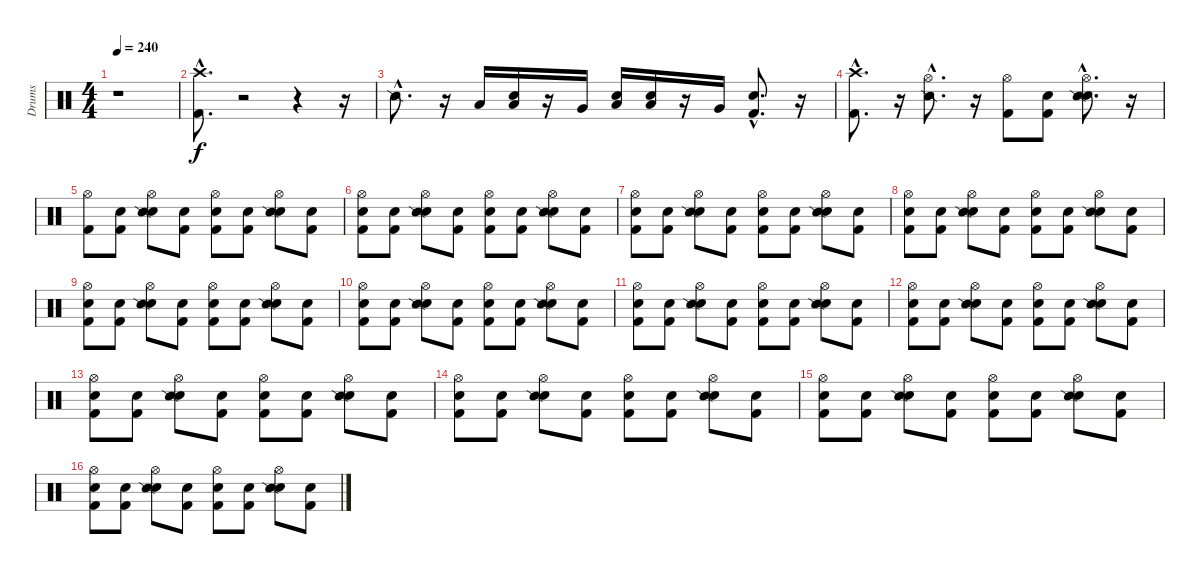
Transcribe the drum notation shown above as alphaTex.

\track ("Drums" "Drums") {instrument percussion}
\staff {score}
\articulation defaults
\ts (4 4)
\tempo 240
\clef neutral
\ks c
r.1{dy f} |
("Kick (hit) 2"{hac} "Crash high (hit)"{hac}).8{d} r.2 r.4 r.16 |
"Snare (side stick) 2"{hac}.8{d} r.16 "Low Tom (hit)".16 ("Snare (hit)" "Low Tom (hit)").16 r.16 "Very Low Tom (hit)".16 ("Snare (hit)" "Low Tom (hit)").16 ("Snare (hit)" "Low Tom (hit)").16 r.16 "Very Low Tom (hit)".16 ("Snare (hit)"{hac} "Kick (hit) 2"{hac}).8{d} r.16 |
("Kick (hit) 2"{hac} "Crash high (hit)"{hac}).8{d} r.16 ("Hi-Hat (open)"{hac} "Snare (side stick) 2"{hac}).8{d} r.16 ("Kick (hit) 2" "Hi-Hat (open)").8 ("Snare (hit)" "Kick (hit) 2").8 ("Snare (hit)"{hac} "Hi-Hat (open)"{hac} "Snare (side stick) 2"{hac}).8{d} r.16 |
("Kick (hit) 2" "Hi-Hat (open)").8 ("Snare (hit)" "Kick (hit) 2").8 ("Snare (hit)" "Hi-Hat (open)" "Snare (side stick) 2").8 ("Snare (hit)" "Kick (hit) 2").8 ("Snare (hit)" "Kick (hit) 2" "Hi-Hat (open)").8 ("Snare (hit)" "Kick (hit) 2").8 ("Snare (hit)" "Hi-Hat (open)" "Snare (side stick) 2").8 ("Snare (hit)" "Kick (hit) 2").8 |
("Snare (hit)" "Kick (hit) 2" "Hi-Hat (open)").8 ("Snare (hit)" "Kick (hit) 2").8 ("Snare (hit)" "Hi-Hat (open)" "Snare (side stick) 2").8 ("Snare (hit)" "Kick (hit) 2").8 ("Snare (hit)" "Kick (hit) 2" "Hi-Hat (open)").8 ("Snare (hit)" "Kick (hit) 2").8 ("Snare (hit)" "Hi-Hat (open)" "Snare (side stick) 2").8 ("Snare (hit)" "Kick (hit) 2").8 |
("Snare (hit)" "Kick (hit) 2" "Hi-Hat (open)").8 ("Snare (hit)" "Kick (hit) 2").8 ("Snare (hit)" "Hi-Hat (open)" "Snare (side stick) 2").8 ("Snare (hit)" "Kick (hit) 2").8 ("Snare (hit)" "Kick (hit) 2" "Hi-Hat (open)").8 ("Snare (hit)" "Kick (hit) 2").8 ("Snare (hit)" "Hi-Hat (open)" "Snare (side stick) 2").8 ("Snare (hit)" "Kick (hit) 2").8 |
("Snare (hit)" "Kick (hit) 2" "Hi-Hat (open)").8 ("Snare (hit)" "Kick (hit) 2").8 ("Snare (hit)" "Hi-Hat (open)" "Snare (side stick) 2").8 ("Snare (hit)" "Kick (hit) 2").8 ("Snare (hit)" "Kick (hit) 2" "Hi-Hat (open)").8 ("Snare (hit)" "Kick (hit) 2").8 ("Snare (hit)" "Hi-Hat (open)" "Snare (side stick) 2").8 ("Snare (hit)" "Kick (hit) 2").8 |
("Snare (hit)" "Kick (hit) 2" "Hi-Hat (open)").8 ("Snare (hit)" "Kick (hit) 2").8 ("Snare (hit)" "Hi-Hat (open)" "Snare (side stick) 2").8 ("Snare (hit)" "Kick (hit) 2").8 ("Snare (hit)" "Kick (hit) 2" "Hi-Hat (open)").8 ("Snare (hit)" "Kick (hit) 2").8 ("Snare (hit)" "Hi-Hat (open)" "Snare (side stick) 2").8 ("Snare (hit)" "Kick (hit) 2").8 |
("Snare (hit)" "Kick (hit) 2" "Hi-Hat (open)").8 ("Snare (hit)" "Kick (hit) 2").8 ("Snare (hit)" "Hi-Hat (open)" "Snare (side stick) 2").8 ("Snare (hit)" "Kick (hit) 2").8 ("Snare (hit)" "Kick (hit) 2" "Hi-Hat (open)").8 ("Snare (hit)" "Kick (hit) 2").8 ("Snare (hit)" "Hi-Hat (open)" "Snare (side stick) 2").8 ("Snare (hit)" "Kick (hit) 2").8 |
("Snare (hit)" "Kick (hit) 2" "Hi-Hat (open)").8 ("Snare (hit)" "Kick (hit) 2").8 ("Snare (hit)" "Hi-Hat (open)" "Snare (side stick) 2").8 ("Snare (hit)" "Kick (hit) 2").8 ("Snare (hit)" "Kick (hit) 2" "Hi-Hat (open)").8 ("Snare (hit)" "Kick (hit) 2").8 ("Snare (hit)" "Hi-Hat (open)" "Snare (side stick) 2").8 ("Snare (hit)" "Kick (hit) 2").8 |
("Snare (hit)" "Kick (hit) 2" "Hi-Hat (open)").8 ("Snare (hit)" "Kick (hit) 2").8 ("Snare (hit)" "Hi-Hat (open)" "Snare (side stick) 2").8 ("Snare (hit)" "Kick (hit) 2").8 ("Snare (hit)" "Kick (hit) 2" "Hi-Hat (open)").8 ("Snare (hit)" "Kick (hit) 2").8 ("Snare (hit)" "Hi-Hat (open)" "Snare (side stick) 2").8 ("Snare (hit)" "Kick (hit) 2").8 |
("Snare (hit)" "Kick (hit) 2" "Hi-Hat (open)").8 ("Snare (hit)" "Kick (hit) 2").8 ("Snare (hit)" "Hi-Hat (open)" "Snare (side stick) 2").8 ("Snare (hit)" "Kick (hit) 2").8 ("Snare (hit)" "Kick (hit) 2" "Hi-Hat (open)").8 ("Snare (hit)" "Kick (hit) 2").8 ("Snare (hit)" "Hi-Hat (open)" "Snare (side stick) 2").8 ("Snare (hit)" "Kick (hit) 2").8 |
("Snare (hit)" "Kick (hit) 2" "Hi-Hat (open)").8 ("Snare (hit)" "Kick (hit) 2").8 ("Snare (hit)" "Hi-Hat (open)" "Snare (side stick) 2").8 ("Snare (hit)" "Kick (hit) 2").8 ("Snare (hit)" "Kick (hit) 2" "Hi-Hat (open)").8 ("Snare (hit)" "Kick (hit) 2").8 ("Snare (hit)" "Hi-Hat (open)" "Snare (side stick) 2").8 ("Snare (hit)" "Kick (hit) 2").8 |
("Snare (hit)" "Kick (hit) 2" "Hi-Hat (open)").8 ("Snare (hit)" "Kick (hit) 2").8 ("Snare (hit)" "Hi-Hat (open)" "Snare (side stick) 2").8 ("Snare (hit)" "Kick (hit) 2").8 ("Snare (hit)" "Kick (hit) 2" "Hi-Hat (open)").8 ("Snare (hit)" "Kick (hit) 2").8 ("Snare (hit)" "Hi-Hat (open)" "Snare (side stick) 2").8 ("Snare (hit)" "Kick (hit) 2").8 |
("Snare (hit)" "Kick (hit) 2" "Hi-Hat (open)").8 ("Snare (hit)" "Kick (hit) 2").8 ("Snare (hit)" "Hi-Hat (open)" "Snare (side stick) 2").8 ("Snare (hit)" "Kick (hit) 2").8 ("Snare (hit)" "Kick (hit) 2" "Hi-Hat (open)").8 ("Snare (hit)" "Kick (hit) 2").8 ("Snare (hit)" "Hi-Hat (open)" "Snare (side stick) 2").8 ("Snare (hit)" "Kick (hit) 2").8
